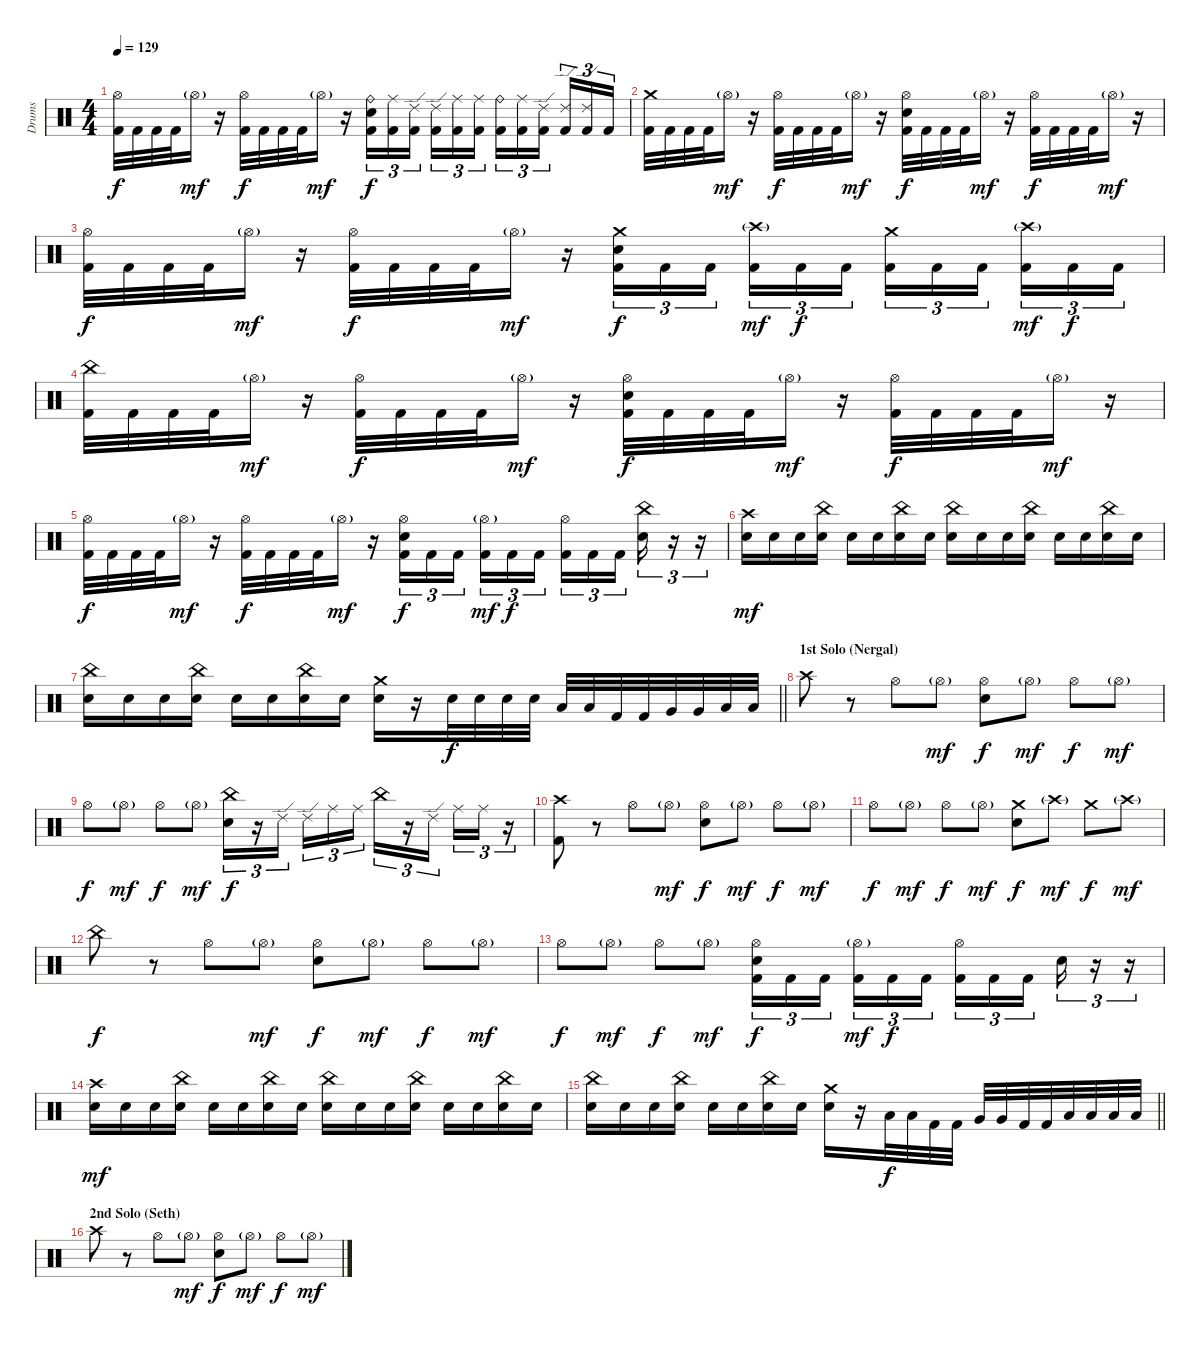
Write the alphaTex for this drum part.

\track ("Drums" "Drums") {instrument percussion}
\staff {score}
\articulation defaults
\ts (4 4)
\tempo 129
\clef neutral
\ks c
("Hi-Hat (open)" "Kick (hit) 2").32{dy f} "Kick (hit) 2".32 "Kick (hit) 2".32 "Kick (hit) 2".32 "Hi-Hat (open)"{g}.16{dy mf} r.16 ("Hi-Hat (open)" "Kick (hit) 2").32{dy f} "Kick (hit) 2".32 "Kick (hit) 2".32 "Kick (hit) 2".32 "Hi-Hat (open)"{g}.16{dy mf} r.16 ("Ride (bell)" "Snare (hit) 2" "Kick (hit) 2").16{tu (3 2) dy f} ("Ride (middle)" "Kick (hit) 2").16{tu (3 2)} ("Ride (edge) 2" "Kick (hit) 2").16{tu (3 2) beam splitsecondary} ("Ride (edge) 2" "Kick (hit) 2").16{tu (3 2)} ("Ride (middle)" "Kick (hit) 2").16{tu (3 2)} ("Ride (middle)" "Kick (hit) 2").16{tu (3 2)} ("Ride (bell)" "Kick (hit) 2").16{tu (3 2)} ("Ride (middle)" "Kick (hit) 2").16{tu (3 2)} ("Ride (edge) 2" "Kick (hit) 2").16{tu (3 2) beam splitsecondary} ("Ride (edge) 2" "Kick (hit) 2").16{tu (3 2)} ("Ride (edge) 2" "Kick (hit) 2").16{tu (3 2)} "Kick (hit) 2".16{tu (3 2)} |
("Crash medium (hit)" "Kick (hit) 2").32 "Kick (hit) 2".32 "Kick (hit) 2".32 "Kick (hit) 2".32 "Hi-Hat (open)"{g}.16{dy mf} r.16 ("Hi-Hat (open)" "Kick (hit) 2").32{dy f} "Kick (hit) 2".32 "Kick (hit) 2".32 "Kick (hit) 2".32 "Hi-Hat (open)"{g}.16{dy mf} r.16 ("Hi-Hat (open)" "Snare (hit) 2" "Kick (hit) 2").32{dy f} "Kick (hit) 2".32 "Kick (hit) 2".32 "Kick (hit) 2".32 "Hi-Hat (open)"{g}.16{dy mf} r.16 ("Hi-Hat (open)" "Kick (hit) 2").32{dy f} "Kick (hit) 2".32 "Kick (hit) 2".32 "Kick (hit) 2".32 "Hi-Hat (open)"{g}.16{dy mf} r.16 |
("Hi-Hat (open)" "Kick (hit) 2").32{dy f} "Kick (hit) 2".32 "Kick (hit) 2".32 "Kick (hit) 2".32 "Hi-Hat (open)"{g}.16{dy mf} r.16 ("Hi-Hat (open)" "Kick (hit) 2").32{dy f} "Kick (hit) 2".32 "Kick (hit) 2".32 "Kick (hit) 2".32 "Hi-Hat (open)"{g}.16{dy mf} r.16 ("Crash medium (hit)" "Snare (hit) 2" "Kick (hit) 2").16{tu (3 2) dy f} "Kick (hit) 2".16{tu (3 2)} "Kick (hit) 2".16{tu (3 2) beam splitsecondary} ("Crash high (hit)"{g} "Kick (hit) 2").16{tu (3 2) dy mf} "Kick (hit) 2".16{tu (3 2) dy f} "Kick (hit) 2".16{tu (3 2)} ("Crash medium (hit)" "Kick (hit) 2").16{tu (3 2)} "Kick (hit) 2".16{tu (3 2)} "Kick (hit) 2".16{tu (3 2) beam splitsecondary} ("Crash high (hit)"{g} "Kick (hit) 2").16{tu (3 2) dy mf} "Kick (hit) 2".16{tu (3 2) dy f} "Kick (hit) 2".16{tu (3 2)} |
("China (hit)" "Kick (hit) 2").32 "Kick (hit) 2".32 "Kick (hit) 2".32 "Kick (hit) 2".32 "Hi-Hat (open)"{g}.16{dy mf} r.16 ("Hi-Hat (open)" "Kick (hit) 2").32{dy f} "Kick (hit) 2".32 "Kick (hit) 2".32 "Kick (hit) 2".32 "Hi-Hat (open)"{g}.16{dy mf} r.16 ("Hi-Hat (open)" "Snare (hit) 2" "Kick (hit) 2").32{dy f} "Kick (hit) 2".32 "Kick (hit) 2".32 "Kick (hit) 2".32 "Hi-Hat (open)"{g}.16{dy mf} r.16 ("Hi-Hat (open)" "Kick (hit) 2").32{dy f} "Kick (hit) 2".32 "Kick (hit) 2".32 "Kick (hit) 2".32 "Hi-Hat (open)"{g}.16{dy mf} r.16 |
("Hi-Hat (open)" "Kick (hit) 2").32{dy f} "Kick (hit) 2".32 "Kick (hit) 2".32 "Kick (hit) 2".32 "Hi-Hat (open)"{g}.16{dy mf} r.16 ("Hi-Hat (open)" "Kick (hit) 2").32{dy f} "Kick (hit) 2".32 "Kick (hit) 2".32 "Kick (hit) 2".32 "Hi-Hat (open)"{g}.16{dy mf} r.16 ("Hi-Hat (open)" "Snare (hit) 2" "Kick (hit) 2").16{tu (3 2) dy f} "Kick (hit) 2".16{tu (3 2)} "Kick (hit) 2".16{tu (3 2) beam splitsecondary} ("Hi-Hat (open)"{g} "Kick (hit) 2").16{tu (3 2) dy mf} "Kick (hit) 2".16{tu (3 2) dy f} "Kick (hit) 2".16{tu (3 2)} ("Hi-Hat (open)" "Kick (hit) 2").16{tu (3 2)} "Kick (hit) 2".16{tu (3 2)} "Kick (hit) 2".16{tu (3 2) beam splitsecondary} ("China (hit)" "Snare (hit) 2").16{tu (3 2)} r.16{tu (3 2)} r.16{tu (3 2)} |
("Crash high (hit)" "Snare (hit) 2").16{dy mf} "Snare (hit) 2".16 "Snare (hit) 2".16 ("China (hit)" "Snare (hit) 2").16 "Snare (hit) 2".16 "Snare (hit) 2".16 ("China (hit)" "Snare (hit) 2").16 "Snare (hit) 2".16 ("China (hit)" "Snare (hit) 2").16 "Snare (hit) 2".16 "Snare (hit) 2".16 ("China (hit)" "Snare (hit) 2").16 "Snare (hit) 2".16 "Snare (hit) 2".16 ("China (hit)" "Snare (hit) 2").16 "Snare (hit) 2".16 |
\barLineRight lightlight
("China (hit)" "Snare (hit) 2").16 "Snare (hit) 2".16 "Snare (hit) 2".16 ("China (hit)" "Snare (hit) 2").16 "Snare (hit) 2".16 "Snare (hit) 2".16 ("China (hit)" "Snare (hit) 2").16 "Snare (hit) 2".16 ("Crash medium (hit)" "Snare (hit) 2").16 r.16 "Snare (hit) 2".32{dy f} "Snare (hit) 2".32 "Snare (hit) 2".32 "Snare (hit) 2".32 "Low Tom (hit)".32 "Low Tom (hit)".32 "Kick (hit) 2".32 "Kick (hit) 2".32 "Very Low Tom (hit)".32 "Very Low Tom (hit)".32 "Low Floor Tom (hit)".32 "Low Floor Tom (hit)".32 |
\section ("" "1st Solo (Nergal)")
"Crash high (hit)".8 r.8 "Hi-Hat (open)".8 "Hi-Hat (open)"{g}.8{dy mf} ("Hi-Hat (open)" "Snare (hit) 2").8{dy f} "Hi-Hat (open)"{g}.8{dy mf} "Hi-Hat (open)".8{dy f} "Hi-Hat (open)"{g}.8{dy mf} |
"Hi-Hat (open)".8{dy f} "Hi-Hat (open)"{g}.8{dy mf} "Hi-Hat (open)".8{dy f} "Hi-Hat (open)"{g}.8{dy mf} ("China (hit)" "Snare (hit) 2").16{tu (3 2) dy f} r.16{tu (3 2)} "Ride (edge) 2".16{tu (3 2) beam splitsecondary} "Ride (edge) 2".16{tu (3 2)} "Ride (middle)".16{tu (3 2)} "Ride (middle)".16{tu (3 2)} "China (hit)".16{tu (3 2)} r.16{tu (3 2)} "Ride (edge) 2".16{tu (3 2) beam splitsecondary} "Ride (middle)".16{tu (3 2)} "Ride (middle)".16{tu (3 2)} r.16{tu (3 2)} |
("Crash high (hit)" "Kick (hit) 2").8 r.8 "Hi-Hat (open)".8 "Hi-Hat (open)"{g}.8{dy mf} ("Hi-Hat (open)" "Snare (hit) 2").8{dy f} "Hi-Hat (open)"{g}.8{dy mf} "Hi-Hat (open)".8{dy f} "Hi-Hat (open)"{g}.8{dy mf} |
"Hi-Hat (open)".8{dy f} "Hi-Hat (open)"{g}.8{dy mf} "Hi-Hat (open)".8{dy f} "Hi-Hat (open)"{g}.8{dy mf} ("Crash medium (hit)" "Snare (hit) 2").8{dy f} "Crash high (hit)"{g}.8{dy mf} "Crash medium (hit)".8{dy f} "Crash high (hit)"{g}.8{dy mf} |
"China (hit)".8{dy f} r.8 "Hi-Hat (open)".8 "Hi-Hat (open)"{g}.8{dy mf} ("Hi-Hat (open)" "Snare (hit) 2").8{dy f} "Hi-Hat (open)"{g}.8{dy mf} "Hi-Hat (open)".8{dy f} "Hi-Hat (open)"{g}.8{dy mf} |
"Hi-Hat (open)".8{dy f} "Hi-Hat (open)"{g}.8{dy mf} "Hi-Hat (open)".8{dy f} "Hi-Hat (open)"{g}.8{dy mf} ("Hi-Hat (open)" "Snare (hit) 2" "Kick (hit) 2").16{tu (3 2) dy f} "Kick (hit) 2".16{tu (3 2)} "Kick (hit) 2".16{tu (3 2) beam splitsecondary} ("Hi-Hat (open)"{g} "Kick (hit) 2").16{tu (3 2) dy mf} "Kick (hit) 2".16{tu (3 2) dy f} "Kick (hit) 2".16{tu (3 2)} ("Hi-Hat (open)" "Kick (hit) 2").16{tu (3 2)} "Kick (hit) 2".16{tu (3 2)} "Kick (hit) 2".16{tu (3 2) beam splitsecondary} "Snare (hit) 2".16{tu (3 2)} r.16{tu (3 2)} r.16{tu (3 2)} |
("Crash high (hit)" "Snare (hit) 2").16{dy mf} "Snare (hit) 2".16 "Snare (hit) 2".16 ("China (hit)" "Snare (hit) 2").16 "Snare (hit) 2".16 "Snare (hit) 2".16 ("China (hit)" "Snare (hit) 2").16 "Snare (hit) 2".16 ("China (hit)" "Snare (hit) 2").16 "Snare (hit) 2".16 "Snare (hit) 2".16 ("China (hit)" "Snare (hit) 2").16 "Snare (hit) 2".16 "Snare (hit) 2".16 ("China (hit)" "Snare (hit) 2").16 "Snare (hit) 2".16 |
\barLineRight lightlight
("China (hit)" "Snare (hit) 2").16 "Snare (hit) 2".16 "Snare (hit) 2".16 ("China (hit)" "Snare (hit) 2").16 "Snare (hit) 2".16 "Snare (hit) 2".16 ("China (hit)" "Snare (hit) 2").16 "Snare (hit) 2".16 ("Crash medium (hit)" "Snare (hit) 2").16 r.16 "Low Tom (hit)".32{dy f} "Low Tom (hit)".32 "Kick (hit) 2".32 "Kick (hit) 2".32 "Very Low Tom (hit)".32 "Very Low Tom (hit)".32 "Kick (hit) 2".32 "Kick (hit) 2".32 "Low Floor Tom (hit)".32 "Low Floor Tom (hit)".32 "Low Floor Tom (hit)".32 "Low Floor Tom (hit)".32 |
\section ("" "2nd Solo (Seth)")
"Crash high (hit)".8 r.8 "Hi-Hat (open)".8 "Hi-Hat (open)"{g}.8{dy mf} ("Hi-Hat (open)" "Snare (hit) 2").8{dy f} "Hi-Hat (open)"{g}.8{dy mf} "Hi-Hat (open)".8{dy f} "Hi-Hat (open)"{g}.8{dy mf}
